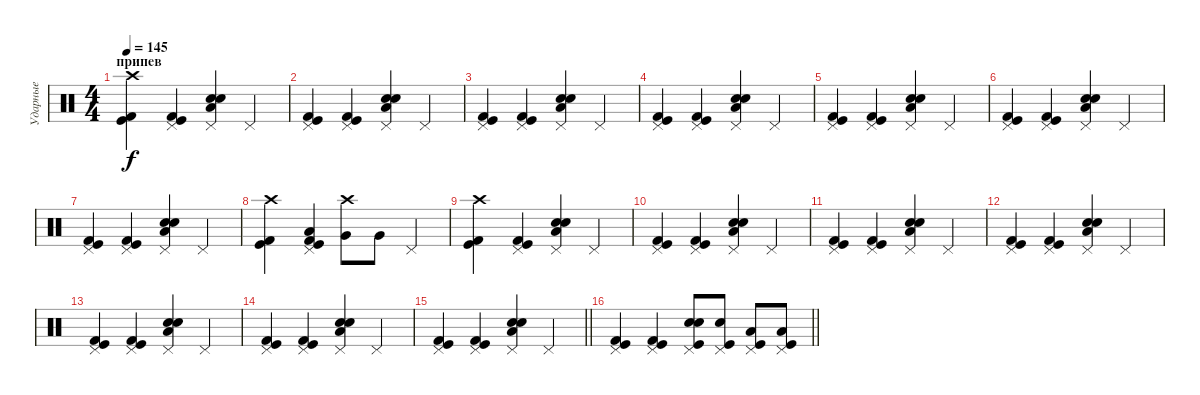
\track ("Ударные" "Ударные") {instrument percussion}
\staff {score}
\articulation defaults
\ts (4 4)
\section ("" "припев ")
\tempo 145
\clef neutral
\ks c
("Crash high (hit)" "Kick (hit) 2" "Kick (hit)").4{dy f} ("Pedal Hi-Hat (hit)" "Kick (hit) 2" "Kick (hit)").4 ("Pedal Hi-Hat (hit)" "Snare (hit) 2" "Electric Snare (hit)" "Low Floor Tom (hit)").4 "Pedal Hi-Hat (hit)".4 |
("Pedal Hi-Hat (hit)" "Kick (hit) 2" "Kick (hit)").4 ("Pedal Hi-Hat (hit)" "Kick (hit) 2" "Kick (hit)").4 ("Pedal Hi-Hat (hit)" "Snare (hit) 2" "Electric Snare (hit)" "Low Floor Tom (hit)").4 "Pedal Hi-Hat (hit)".4 |
("Pedal Hi-Hat (hit)" "Kick (hit) 2" "Kick (hit)").4 ("Pedal Hi-Hat (hit)" "Kick (hit) 2" "Kick (hit)").4 ("Pedal Hi-Hat (hit)" "Snare (hit) 2" "Electric Snare (hit)" "Low Floor Tom (hit)").4 "Pedal Hi-Hat (hit)".4 |
("Pedal Hi-Hat (hit)" "Kick (hit) 2" "Kick (hit)").4 ("Pedal Hi-Hat (hit)" "Kick (hit) 2" "Kick (hit)").4 ("Pedal Hi-Hat (hit)" "Snare (hit) 2" "Electric Snare (hit)" "Low Floor Tom (hit)").4 "Pedal Hi-Hat (hit)".4 |
("Pedal Hi-Hat (hit)" "Kick (hit) 2" "Kick (hit)").4 ("Pedal Hi-Hat (hit)" "Kick (hit) 2" "Kick (hit)").4 ("Pedal Hi-Hat (hit)" "Snare (hit) 2" "Electric Snare (hit)" "Low Floor Tom (hit)").4 "Pedal Hi-Hat (hit)".4 |
("Pedal Hi-Hat (hit)" "Kick (hit) 2" "Kick (hit)").4 ("Pedal Hi-Hat (hit)" "Kick (hit) 2" "Kick (hit)").4 ("Pedal Hi-Hat (hit)" "Snare (hit) 2" "Electric Snare (hit)" "Low Floor Tom (hit)").4 "Pedal Hi-Hat (hit)".4 |
("Pedal Hi-Hat (hit)" "Kick (hit) 2" "Kick (hit)").4 ("Pedal Hi-Hat (hit)" "Kick (hit) 2" "Kick (hit)").4 ("Pedal Hi-Hat (hit)" "Snare (hit) 2" "Electric Snare (hit)" "Low Floor Tom (hit)").4 "Pedal Hi-Hat (hit)".4 |
("Crash high (hit)" "Kick (hit) 2" "Kick (hit)").4 ("Pedal Hi-Hat (hit)" "Kick (hit) 2" "Low Tom (hit)" "Kick (hit)").4 ("Crash high (hit)" "Very Low Tom (hit)").8 "Very Low Tom (hit)".8 "Pedal Hi-Hat (hit)".4 |
("Crash high (hit)" "Kick (hit) 2" "Kick (hit)").4 ("Pedal Hi-Hat (hit)" "Kick (hit) 2" "Kick (hit)").4 ("Pedal Hi-Hat (hit)" "Snare (hit) 2" "Electric Snare (hit)" "Low Floor Tom (hit)").4 "Pedal Hi-Hat (hit)".4 |
("Pedal Hi-Hat (hit)" "Kick (hit) 2" "Kick (hit)").4 ("Pedal Hi-Hat (hit)" "Kick (hit) 2" "Kick (hit)").4 ("Pedal Hi-Hat (hit)" "Snare (hit) 2" "Electric Snare (hit)" "Low Floor Tom (hit)").4 "Pedal Hi-Hat (hit)".4 |
("Pedal Hi-Hat (hit)" "Kick (hit) 2" "Kick (hit)").4 ("Pedal Hi-Hat (hit)" "Kick (hit) 2" "Kick (hit)").4 ("Pedal Hi-Hat (hit)" "Snare (hit) 2" "Electric Snare (hit)" "Low Floor Tom (hit)").4 "Pedal Hi-Hat (hit)".4 |
("Pedal Hi-Hat (hit)" "Kick (hit) 2" "Kick (hit)").4 ("Pedal Hi-Hat (hit)" "Kick (hit) 2" "Kick (hit)").4 ("Pedal Hi-Hat (hit)" "Snare (hit) 2" "Electric Snare (hit)" "Low Floor Tom (hit)").4 "Pedal Hi-Hat (hit)".4 |
("Pedal Hi-Hat (hit)" "Kick (hit) 2" "Kick (hit)").4 ("Pedal Hi-Hat (hit)" "Kick (hit) 2" "Kick (hit)").4 ("Pedal Hi-Hat (hit)" "Snare (hit) 2" "Electric Snare (hit)" "Low Floor Tom (hit)").4 "Pedal Hi-Hat (hit)".4 |
("Pedal Hi-Hat (hit)" "Kick (hit) 2" "Kick (hit)").4 ("Pedal Hi-Hat (hit)" "Kick (hit) 2" "Kick (hit)").4 ("Pedal Hi-Hat (hit)" "Snare (hit) 2" "Electric Snare (hit)" "Low Floor Tom (hit)").4 "Pedal Hi-Hat (hit)".4 |
\barLineRight lightlight
("Pedal Hi-Hat (hit)" "Kick (hit) 2" "Kick (hit)").4 ("Pedal Hi-Hat (hit)" "Kick (hit) 2" "Kick (hit)").4 ("Pedal Hi-Hat (hit)" "Snare (hit) 2" "Electric Snare (hit)" "Low Floor Tom (hit)").4 "Pedal Hi-Hat (hit)".4 |
\barLineRight lightlight
("Pedal Hi-Hat (hit)" "Kick (hit) 2" "Kick (hit)").4 ("Pedal Hi-Hat (hit)" "Kick (hit) 2" "Kick (hit)").4 ("Pedal Hi-Hat (hit)" "Electric Snare (hit)" "Kick (hit)" "Snare (hit)").8 ("Pedal Hi-Hat (hit)" "Electric Snare (hit)" "Kick (hit)").8 ("Pedal Hi-Hat (hit)" "Low Tom (hit)" "Kick (hit)").8 ("Pedal Hi-Hat (hit)" "Low Tom (hit)" "Kick (hit)").8
